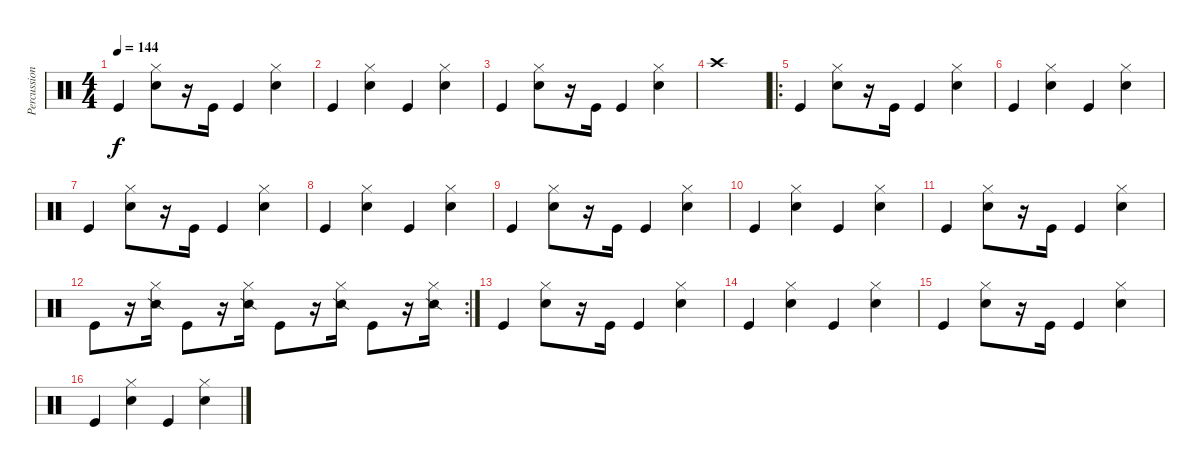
\track ("Percussions" "Percussion") {instrument percussion}
\staff {score}
\articulation defaults
\ts (4 4)
\tempo 144
\clef neutral
\ks c "Kick (hit)".4{dy f}
("Hi-Hat (closed)" "Electric Snare (hit)").8 r.16 "Kick (hit)".16 "Kick (hit)".4 ("Hi-Hat (closed)" "Electric Snare (hit)").4 |
"Kick (hit)".4 ("Hi-Hat (closed)" "Electric Snare (hit)").4 "Kick (hit)".4 ("Hi-Hat (closed)" "Electric Snare (hit)").4 |
"Kick (hit)".4 ("Hi-Hat (closed)" "Electric Snare (hit)").8 r.16 "Kick (hit)".16 "Kick (hit)".4 ("Hi-Hat (closed)" "Electric Snare (hit)").4 |
"Crash high (hit)".1 |
\ro "Kick (hit)".4
("Hi-Hat (closed)" "Electric Snare (hit)").8 r.16 "Kick (hit)".16 "Kick (hit)".4 ("Hi-Hat (closed)" "Electric Snare (hit)").4 |
"Kick (hit)".4 ("Hi-Hat (closed)" "Electric Snare (hit)").4 "Kick (hit)".4 ("Hi-Hat (closed)" "Electric Snare (hit)").4 |
"Kick (hit)".4 ("Hi-Hat (closed)" "Electric Snare (hit)").8 r.16 "Kick (hit)".16 "Kick (hit)".4 ("Hi-Hat (closed)" "Electric Snare (hit)").4 |
"Kick (hit)".4 ("Hi-Hat (closed)" "Electric Snare (hit)").4 "Kick (hit)".4 ("Hi-Hat (closed)" "Electric Snare (hit)").4 |
"Kick (hit)".4 ("Hi-Hat (closed)" "Electric Snare (hit)").8 r.16 "Kick (hit)".16 "Kick (hit)".4 ("Hi-Hat (closed)" "Electric Snare (hit)").4 |
"Kick (hit)".4 ("Hi-Hat (closed)" "Electric Snare (hit)").4 "Kick (hit)".4 ("Hi-Hat (closed)" "Electric Snare (hit)").4 |
"Kick (hit)".4 ("Hi-Hat (closed)" "Electric Snare (hit)").8 r.16 "Kick (hit)".16 "Kick (hit)".4 ("Hi-Hat (closed)" "Electric Snare (hit)").4 |
\rc 2 "Kick (hit)".8
r.16 ("Hi-Hat (closed)" "Snare (side stick) 2").16 "Kick (hit)".8 r.16 ("Hi-Hat (closed)" "Snare (side stick) 2").16 "Kick (hit)".8 r.16 ("Hi-Hat (closed)" "Snare (side stick) 2").16 "Kick (hit)".8 r.16 ("Hi-Hat (closed)" "Snare (side stick) 2").16 |
"Kick (hit)".4 ("Hi-Hat (closed)" "Electric Snare (hit)").8 r.16 "Kick (hit)".16 "Kick (hit)".4 ("Hi-Hat (closed)" "Electric Snare (hit)").4 |
"Kick (hit)".4 ("Hi-Hat (closed)" "Electric Snare (hit)").4 "Kick (hit)".4 ("Hi-Hat (closed)" "Electric Snare (hit)").4 |
"Kick (hit)".4 ("Hi-Hat (closed)" "Electric Snare (hit)").8 r.16 "Kick (hit)".16 "Kick (hit)".4 ("Hi-Hat (closed)" "Electric Snare (hit)").4 |
"Kick (hit)".4 ("Hi-Hat (closed)" "Electric Snare (hit)").4 "Kick (hit)".4 ("Hi-Hat (closed)" "Electric Snare (hit)").4
